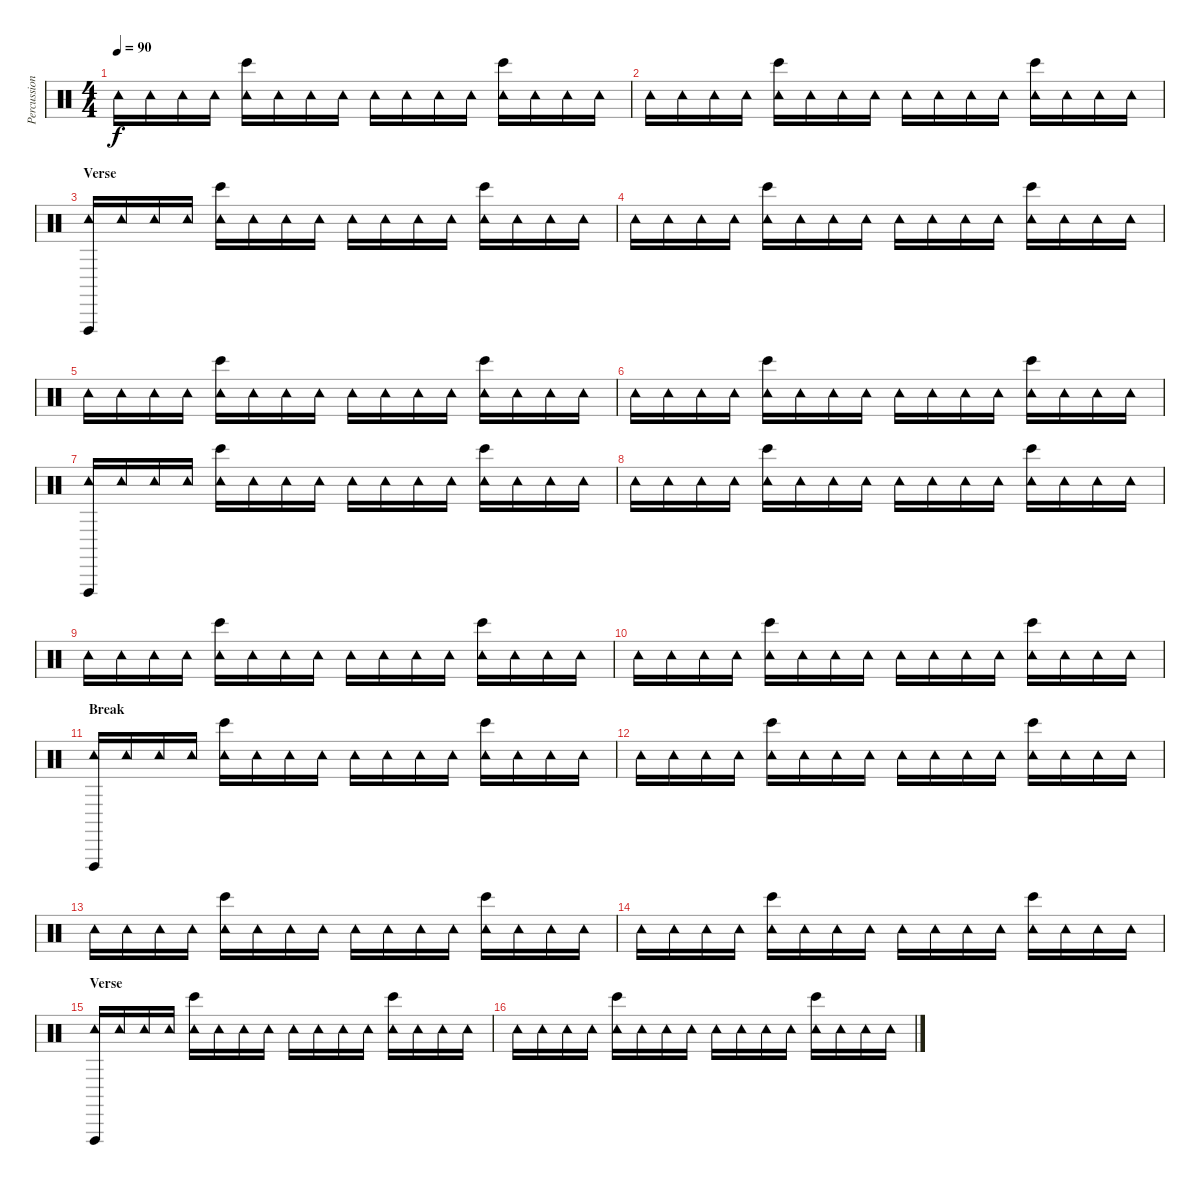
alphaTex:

\track ("Percussion" "Percussion") {instrument percussion}
\staff {score}
\articulation defaults
\ts (4 4)
\tempo 90
\clef neutral
\ks c "Tambourine (hit)".16{dy f} "Tambourine (hit)".16 "Tambourine (hit)".16 "Tambourine (hit)".16
("Tambourine (hit)" "Bongo High (hit)").16 "Tambourine (hit)".16 "Tambourine (hit)".16 "Tambourine (hit)".16 "Tambourine (hit)".16 "Tambourine (hit)".16 "Tambourine (hit)".16 "Tambourine (hit)".16 ("Tambourine (hit)" "Bongo High (hit)").16 "Tambourine (hit)".16 "Tambourine (hit)".16 "Tambourine (hit)".16 |
"Tambourine (hit)".16 "Tambourine (hit)".16 "Tambourine (hit)".16 "Tambourine (hit)".16 ("Tambourine (hit)" "Bongo High (hit)").16 "Tambourine (hit)".16 "Tambourine (hit)".16 "Tambourine (hit)".16 "Tambourine (hit)".16 "Tambourine (hit)".16 "Tambourine (hit)".16 "Tambourine (hit)".16 ("Tambourine (hit)" "Bongo High (hit)").16 "Tambourine (hit)".16 "Tambourine (hit)".16 "Tambourine (hit)".16 |
\section ("" "Verse")
("Tambourine (hit)" "Vibraslap (hit)").16 "Tambourine (hit)".16 "Tambourine (hit)".16 "Tambourine (hit)".16 ("Tambourine (hit)" "Bongo High (hit)").16 "Tambourine (hit)".16 "Tambourine (hit)".16 "Tambourine (hit)".16 "Tambourine (hit)".16 "Tambourine (hit)".16 "Tambourine (hit)".16 "Tambourine (hit)".16 ("Tambourine (hit)" "Bongo High (hit)").16 "Tambourine (hit)".16 "Tambourine (hit)".16 "Tambourine (hit)".16 |
"Tambourine (hit)".16 "Tambourine (hit)".16 "Tambourine (hit)".16 "Tambourine (hit)".16 ("Tambourine (hit)" "Bongo High (hit)").16 "Tambourine (hit)".16 "Tambourine (hit)".16 "Tambourine (hit)".16 "Tambourine (hit)".16 "Tambourine (hit)".16 "Tambourine (hit)".16 "Tambourine (hit)".16 ("Tambourine (hit)" "Bongo High (hit)").16 "Tambourine (hit)".16 "Tambourine (hit)".16 "Tambourine (hit)".16 |
"Tambourine (hit)".16 "Tambourine (hit)".16 "Tambourine (hit)".16 "Tambourine (hit)".16 ("Tambourine (hit)" "Bongo High (hit)").16 "Tambourine (hit)".16 "Tambourine (hit)".16 "Tambourine (hit)".16 "Tambourine (hit)".16 "Tambourine (hit)".16 "Tambourine (hit)".16 "Tambourine (hit)".16 ("Tambourine (hit)" "Bongo High (hit)").16 "Tambourine (hit)".16 "Tambourine (hit)".16 "Tambourine (hit)".16 |
"Tambourine (hit)".16 "Tambourine (hit)".16 "Tambourine (hit)".16 "Tambourine (hit)".16 ("Tambourine (hit)" "Bongo High (hit)").16 "Tambourine (hit)".16 "Tambourine (hit)".16 "Tambourine (hit)".16 "Tambourine (hit)".16 "Tambourine (hit)".16 "Tambourine (hit)".16 "Tambourine (hit)".16 ("Tambourine (hit)" "Bongo High (hit)").16 "Tambourine (hit)".16 "Tambourine (hit)".16 "Tambourine (hit)".16 |
("Tambourine (hit)" "Vibraslap (hit)").16 "Tambourine (hit)".16 "Tambourine (hit)".16 "Tambourine (hit)".16 ("Tambourine (hit)" "Bongo High (hit)").16 "Tambourine (hit)".16 "Tambourine (hit)".16 "Tambourine (hit)".16 "Tambourine (hit)".16 "Tambourine (hit)".16 "Tambourine (hit)".16 "Tambourine (hit)".16 ("Tambourine (hit)" "Bongo High (hit)").16 "Tambourine (hit)".16 "Tambourine (hit)".16 "Tambourine (hit)".16 |
"Tambourine (hit)".16 "Tambourine (hit)".16 "Tambourine (hit)".16 "Tambourine (hit)".16 ("Tambourine (hit)" "Bongo High (hit)").16 "Tambourine (hit)".16 "Tambourine (hit)".16 "Tambourine (hit)".16 "Tambourine (hit)".16 "Tambourine (hit)".16 "Tambourine (hit)".16 "Tambourine (hit)".16 ("Tambourine (hit)" "Bongo High (hit)").16 "Tambourine (hit)".16 "Tambourine (hit)".16 "Tambourine (hit)".16 |
"Tambourine (hit)".16 "Tambourine (hit)".16 "Tambourine (hit)".16 "Tambourine (hit)".16 ("Tambourine (hit)" "Bongo High (hit)").16 "Tambourine (hit)".16 "Tambourine (hit)".16 "Tambourine (hit)".16 "Tambourine (hit)".16 "Tambourine (hit)".16 "Tambourine (hit)".16 "Tambourine (hit)".16 ("Tambourine (hit)" "Bongo High (hit)").16 "Tambourine (hit)".16 "Tambourine (hit)".16 "Tambourine (hit)".16 |
"Tambourine (hit)".16 "Tambourine (hit)".16 "Tambourine (hit)".16 "Tambourine (hit)".16 ("Tambourine (hit)" "Bongo High (hit)").16 "Tambourine (hit)".16 "Tambourine (hit)".16 "Tambourine (hit)".16 "Tambourine (hit)".16 "Tambourine (hit)".16 "Tambourine (hit)".16 "Tambourine (hit)".16 ("Tambourine (hit)" "Bongo High (hit)").16 "Tambourine (hit)".16 "Tambourine (hit)".16 "Tambourine (hit)".16 |
\section ("" "Break")
("Tambourine (hit)" "Vibraslap (hit)").16 "Tambourine (hit)".16 "Tambourine (hit)".16 "Tambourine (hit)".16 ("Tambourine (hit)" "Bongo High (hit)").16 "Tambourine (hit)".16 "Tambourine (hit)".16 "Tambourine (hit)".16 "Tambourine (hit)".16 "Tambourine (hit)".16 "Tambourine (hit)".16 "Tambourine (hit)".16 ("Tambourine (hit)" "Bongo High (hit)").16 "Tambourine (hit)".16 "Tambourine (hit)".16 "Tambourine (hit)".16 |
"Tambourine (hit)".16 "Tambourine (hit)".16 "Tambourine (hit)".16 "Tambourine (hit)".16 ("Tambourine (hit)" "Bongo High (hit)").16 "Tambourine (hit)".16 "Tambourine (hit)".16 "Tambourine (hit)".16 "Tambourine (hit)".16 "Tambourine (hit)".16 "Tambourine (hit)".16 "Tambourine (hit)".16 ("Tambourine (hit)" "Bongo High (hit)").16 "Tambourine (hit)".16 "Tambourine (hit)".16 "Tambourine (hit)".16 |
"Tambourine (hit)".16 "Tambourine (hit)".16 "Tambourine (hit)".16 "Tambourine (hit)".16 ("Tambourine (hit)" "Bongo High (hit)").16 "Tambourine (hit)".16 "Tambourine (hit)".16 "Tambourine (hit)".16 "Tambourine (hit)".16 "Tambourine (hit)".16 "Tambourine (hit)".16 "Tambourine (hit)".16 ("Tambourine (hit)" "Bongo High (hit)").16 "Tambourine (hit)".16 "Tambourine (hit)".16 "Tambourine (hit)".16 |
"Tambourine (hit)".16 "Tambourine (hit)".16 "Tambourine (hit)".16 "Tambourine (hit)".16 ("Tambourine (hit)" "Bongo High (hit)").16 "Tambourine (hit)".16 "Tambourine (hit)".16 "Tambourine (hit)".16 "Tambourine (hit)".16 "Tambourine (hit)".16 "Tambourine (hit)".16 "Tambourine (hit)".16 ("Tambourine (hit)" "Bongo High (hit)").16 "Tambourine (hit)".16 "Tambourine (hit)".16 "Tambourine (hit)".16 |
\section ("" "Verse")
("Tambourine (hit)" "Vibraslap (hit)").16 "Tambourine (hit)".16 "Tambourine (hit)".16 "Tambourine (hit)".16 ("Tambourine (hit)" "Bongo High (hit)").16 "Tambourine (hit)".16 "Tambourine (hit)".16 "Tambourine (hit)".16 "Tambourine (hit)".16 "Tambourine (hit)".16 "Tambourine (hit)".16 "Tambourine (hit)".16 ("Tambourine (hit)" "Bongo High (hit)").16 "Tambourine (hit)".16 "Tambourine (hit)".16 "Tambourine (hit)".16 |
"Tambourine (hit)".16 "Tambourine (hit)".16 "Tambourine (hit)".16 "Tambourine (hit)".16 ("Tambourine (hit)" "Bongo High (hit)").16 "Tambourine (hit)".16 "Tambourine (hit)".16 "Tambourine (hit)".16 "Tambourine (hit)".16 "Tambourine (hit)".16 "Tambourine (hit)".16 "Tambourine (hit)".16 ("Tambourine (hit)" "Bongo High (hit)").16 "Tambourine (hit)".16 "Tambourine (hit)".16 "Tambourine (hit)".16
